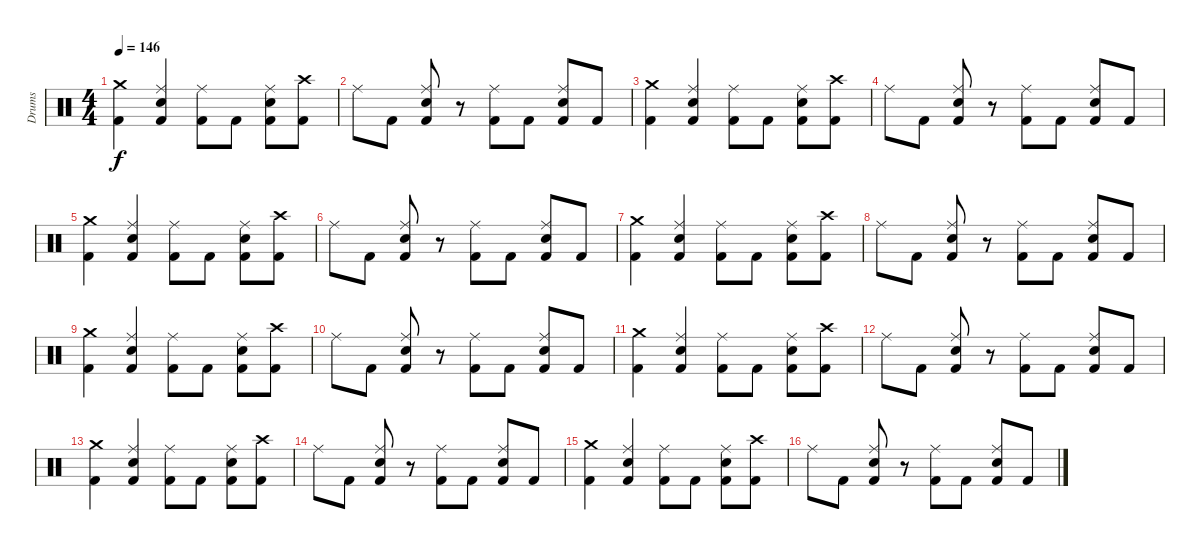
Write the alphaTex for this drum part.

\track ("Drums" "Drums") {instrument percussion}
\staff {score}
\articulation defaults
\ts (4 4)
\tempo 146
\clef neutral
\ks c
("Crash medium (hit)" "Kick (hit) 2").4{dy f} ("Ride (middle)" "Snare (hit) 2" "Kick (hit) 2").4 ("Ride (middle)" "Kick (hit) 2").8 "Kick (hit) 2".8 ("Ride (middle)" "Snare (hit) 2" "Kick (hit) 2").8 ("Crash high (hit)" "Kick (hit) 2").8 |
"Ride (middle)".8 "Kick (hit) 2".8 ("Ride (middle)" "Snare (hit) 2" "Kick (hit) 2").8 r.8 ("Ride (middle)" "Kick (hit) 2").8 "Kick (hit) 2".8 ("Ride (middle)" "Snare (hit) 2" "Kick (hit) 2").8 "Kick (hit) 2".8 |
("Crash medium (hit)" "Kick (hit) 2").4 ("Ride (middle)" "Snare (hit) 2" "Kick (hit) 2").4 ("Ride (middle)" "Kick (hit) 2").8 "Kick (hit) 2".8 ("Ride (middle)" "Snare (hit) 2" "Kick (hit) 2").8 ("Crash high (hit)" "Kick (hit) 2").8 |
"Ride (middle)".8 "Kick (hit) 2".8 ("Ride (middle)" "Snare (hit) 2" "Kick (hit) 2").8 r.8 ("Ride (middle)" "Kick (hit) 2").8 "Kick (hit) 2".8 ("Ride (middle)" "Snare (hit) 2" "Kick (hit) 2").8 "Kick (hit) 2".8 |
("Crash medium (hit)" "Kick (hit) 2").4 ("Ride (middle)" "Snare (hit) 2" "Kick (hit) 2").4 ("Ride (middle)" "Kick (hit) 2").8 "Kick (hit) 2".8 ("Ride (middle)" "Snare (hit) 2" "Kick (hit) 2").8 ("Crash high (hit)" "Kick (hit) 2").8 |
"Ride (middle)".8 "Kick (hit) 2".8 ("Ride (middle)" "Snare (hit) 2" "Kick (hit) 2").8 r.8 ("Ride (middle)" "Kick (hit) 2").8 "Kick (hit) 2".8 ("Ride (middle)" "Snare (hit) 2" "Kick (hit) 2").8 "Kick (hit) 2".8 |
("Crash medium (hit)" "Kick (hit) 2").4 ("Ride (middle)" "Snare (hit) 2" "Kick (hit) 2").4 ("Ride (middle)" "Kick (hit) 2").8 "Kick (hit) 2".8 ("Ride (middle)" "Snare (hit) 2" "Kick (hit) 2").8 ("Crash high (hit)" "Kick (hit) 2").8 |
"Ride (middle)".8 "Kick (hit) 2".8 ("Ride (middle)" "Snare (hit) 2" "Kick (hit) 2").8 r.8 ("Ride (middle)" "Kick (hit) 2").8 "Kick (hit) 2".8 ("Ride (middle)" "Snare (hit) 2" "Kick (hit) 2").8 "Kick (hit) 2".8 |
("Crash medium (hit)" "Kick (hit) 2").4 ("Ride (middle)" "Snare (hit) 2" "Kick (hit) 2").4 ("Ride (middle)" "Kick (hit) 2").8 "Kick (hit) 2".8 ("Ride (middle)" "Snare (hit) 2" "Kick (hit) 2").8 ("Crash high (hit)" "Kick (hit) 2").8 |
"Ride (middle)".8 "Kick (hit) 2".8 ("Ride (middle)" "Snare (hit) 2" "Kick (hit) 2").8 r.8 ("Ride (middle)" "Kick (hit) 2").8 "Kick (hit) 2".8 ("Ride (middle)" "Snare (hit) 2" "Kick (hit) 2").8 "Kick (hit) 2".8 |
("Crash medium (hit)" "Kick (hit) 2").4 ("Ride (middle)" "Snare (hit) 2" "Kick (hit) 2").4 ("Ride (middle)" "Kick (hit) 2").8 "Kick (hit) 2".8 ("Ride (middle)" "Snare (hit) 2" "Kick (hit) 2").8 ("Crash high (hit)" "Kick (hit) 2").8 |
"Ride (middle)".8 "Kick (hit) 2".8 ("Ride (middle)" "Snare (hit) 2" "Kick (hit) 2").8 r.8 ("Ride (middle)" "Kick (hit) 2").8 "Kick (hit) 2".8 ("Ride (middle)" "Snare (hit) 2" "Kick (hit) 2").8 "Kick (hit) 2".8 |
("Crash medium (hit)" "Kick (hit) 2").4 ("Ride (middle)" "Snare (hit) 2" "Kick (hit) 2").4 ("Ride (middle)" "Kick (hit) 2").8 "Kick (hit) 2".8 ("Ride (middle)" "Snare (hit) 2" "Kick (hit) 2").8 ("Crash high (hit)" "Kick (hit) 2").8 |
"Ride (middle)".8 "Kick (hit) 2".8 ("Ride (middle)" "Snare (hit) 2" "Kick (hit) 2").8 r.8 ("Ride (middle)" "Kick (hit) 2").8 "Kick (hit) 2".8 ("Ride (middle)" "Snare (hit) 2" "Kick (hit) 2").8 "Kick (hit) 2".8 |
("Crash medium (hit)" "Kick (hit) 2").4 ("Ride (middle)" "Snare (hit) 2" "Kick (hit) 2").4 ("Ride (middle)" "Kick (hit) 2").8 "Kick (hit) 2".8 ("Ride (middle)" "Snare (hit) 2" "Kick (hit) 2").8 ("Crash high (hit)" "Kick (hit) 2").8 |
"Ride (middle)".8 "Kick (hit) 2".8 ("Ride (middle)" "Snare (hit) 2" "Kick (hit) 2").8 r.8 ("Ride (middle)" "Kick (hit) 2").8 "Kick (hit) 2".8 ("Ride (middle)" "Snare (hit) 2" "Kick (hit) 2").8 "Kick (hit) 2".8
